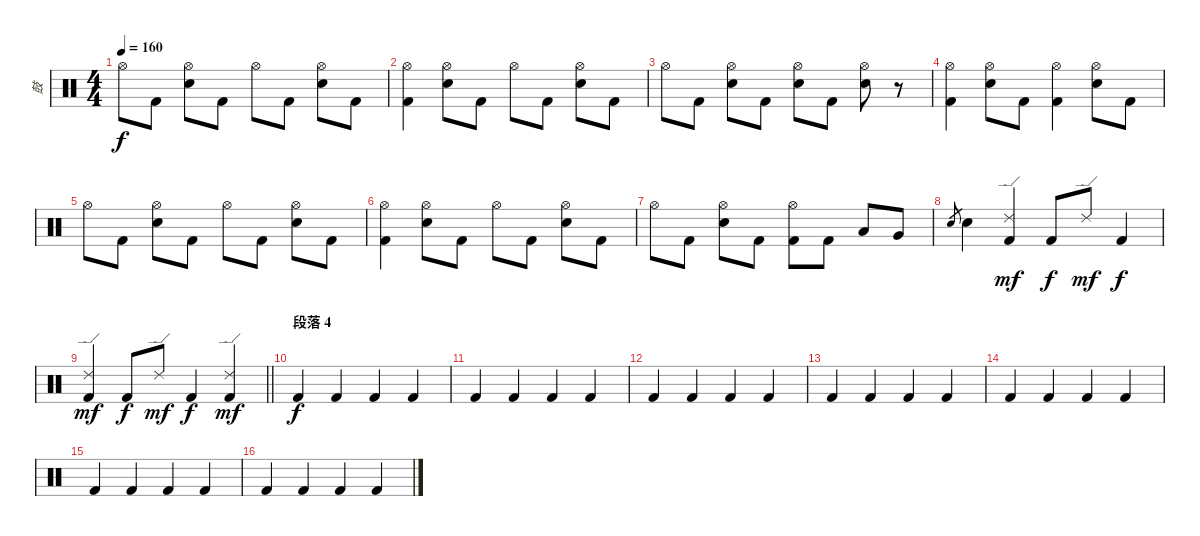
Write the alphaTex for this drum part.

\track ("鼓" "鼓") {instrument percussion}
\staff {score}
\articulation defaults
\ts (4 4)
\tempo 160
\clef neutral
\ks c "Hi-Hat (open)".8{dy f} "Kick (hit) 2".8
("Hi-Hat (open)" "Electric Snare (hit)").8 "Kick (hit) 2".8 "Hi-Hat (open)".8 "Kick (hit) 2".8 ("Hi-Hat (open)" "Electric Snare (hit)").8 "Kick (hit) 2".8 |
("Hi-Hat (open)" "Kick (hit) 2").4 ("Hi-Hat (open)" "Electric Snare (hit)").8 "Kick (hit) 2".8 "Hi-Hat (open)".8 "Kick (hit) 2".8 ("Hi-Hat (open)" "Electric Snare (hit)").8 "Kick (hit) 2".8 |
"Hi-Hat (open)".8 "Kick (hit) 2".8 ("Hi-Hat (open)" "Electric Snare (hit)").8 "Kick (hit) 2".8 ("Hi-Hat (open)" "Electric Snare (hit)").8 "Kick (hit) 2".8 ("Hi-Hat (open)" "Electric Snare (hit)").8 r.8 |
("Hi-Hat (open)" "Kick (hit) 2").4 ("Hi-Hat (open)" "Electric Snare (hit)").8 "Kick (hit) 2".8 ("Hi-Hat (open)" "Kick (hit) 2").4 ("Hi-Hat (open)" "Electric Snare (hit)").8 "Kick (hit) 2".8 |
"Hi-Hat (open)".8 "Kick (hit) 2".8 ("Hi-Hat (open)" "Electric Snare (hit)").8 "Kick (hit) 2".8 "Hi-Hat (open)".8 "Kick (hit) 2".8 ("Hi-Hat (open)" "Electric Snare (hit)").8 "Kick (hit) 2".8 |
("Hi-Hat (open)" "Kick (hit) 2").4 ("Hi-Hat (open)" "Electric Snare (hit)").8 "Kick (hit) 2".8 "Hi-Hat (open)".8 "Kick (hit) 2".8 ("Hi-Hat (open)" "Electric Snare (hit)").8 "Kick (hit) 2".8 |
"Hi-Hat (open)".8 "Kick (hit) 2".8 ("Hi-Hat (open)" "Electric Snare (hit)").8 "Kick (hit) 2".8 ("Hi-Hat (open)" "Kick (hit) 2").8 "Kick (hit) 2".8 "Low Tom (hit)".8 "Very Low Tom (hit)".8 |
"Electric Snare (hit)".8{gr} "Electric Snare (hit)".4 ("Ride (edge) 2" "Kick (hit) 2").4{dy mf} "Kick (hit) 2".8{dy f} "Ride (edge) 2".8{dy mf} "Kick (hit) 2".4{dy f} |
\barLineRight lightlight
("Ride (edge) 2" "Kick (hit) 2").4{dy mf} "Kick (hit) 2".8{dy f} "Ride (edge) 2".8{dy mf} "Kick (hit) 2".4{dy f} ("Ride (edge) 2" "Kick (hit) 2").4{dy mf} |
\section ("" "段落 4")
"Kick (hit) 2".4{dy f} "Kick (hit) 2".4 "Kick (hit) 2".4 "Kick (hit) 2".4 |
"Kick (hit) 2".4 "Kick (hit) 2".4 "Kick (hit) 2".4 "Kick (hit) 2".4 |
"Kick (hit) 2".4 "Kick (hit) 2".4 "Kick (hit) 2".4 "Kick (hit) 2".4 |
"Kick (hit) 2".4 "Kick (hit) 2".4 "Kick (hit) 2".4 "Kick (hit) 2".4 |
"Kick (hit) 2".4 "Kick (hit) 2".4 "Kick (hit) 2".4 "Kick (hit) 2".4 |
"Kick (hit) 2".4 "Kick (hit) 2".4 "Kick (hit) 2".4 "Kick (hit) 2".4 |
"Kick (hit) 2".4 "Kick (hit) 2".4 "Kick (hit) 2".4 "Kick (hit) 2".4
